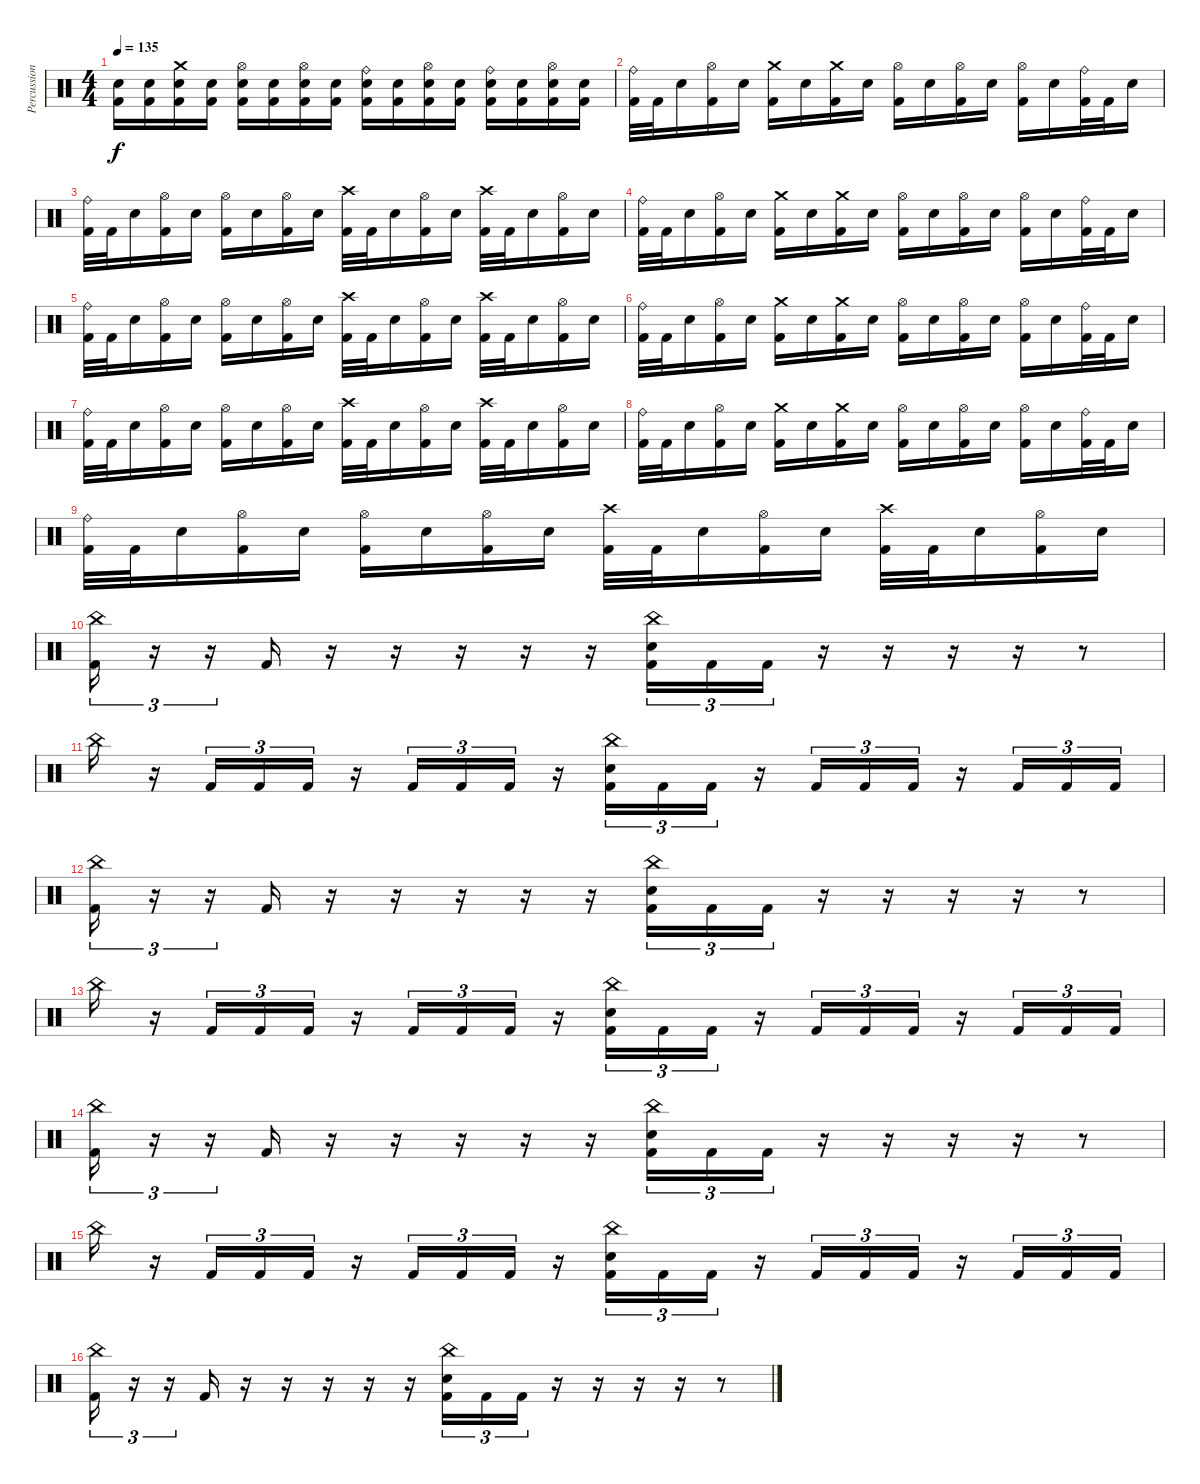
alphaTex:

\track ("Percussion" "Percussion") {instrument percussion}
\staff {score}
\articulation defaults
\ts (4 4)
\tempo 135
\clef neutral
\ks c
("Electric Snare (hit)" "Kick (hit) 2").16{dy f} ("Electric Snare (hit)" "Kick (hit) 2").16 ("Crash medium (hit)" "Electric Snare (hit)" "Kick (hit) 2").16 ("Electric Snare (hit)" "Kick (hit) 2").16 ("Hi-Hat (open)" "Electric Snare (hit)" "Kick (hit) 2").16 ("Electric Snare (hit)" "Kick (hit) 2").16 ("Hi-Hat (open)" "Electric Snare (hit)" "Kick (hit) 2").16 ("Electric Snare (hit)" "Kick (hit) 2").16 ("Ride (bell)" "Electric Snare (hit)" "Kick (hit) 2").16 ("Electric Snare (hit)" "Kick (hit) 2").16 ("Hi-Hat (open)" "Electric Snare (hit)" "Kick (hit) 2").16 ("Electric Snare (hit)" "Kick (hit) 2").16 ("Ride (bell)" "Electric Snare (hit)" "Kick (hit) 2").16 ("Electric Snare (hit)" "Kick (hit) 2").16 ("Hi-Hat (open)" "Electric Snare (hit)" "Kick (hit) 2").16 ("Electric Snare (hit)" "Kick (hit) 2").16 |
("Ride (bell)" "Kick (hit) 2").32 "Kick (hit) 2".32 "Electric Snare (hit)".16 ("Hi-Hat (open)" "Kick (hit) 2").16 "Electric Snare (hit)".16 ("Crash medium (hit)" "Kick (hit) 2").16 "Electric Snare (hit)".16 ("Crash medium (hit)" "Kick (hit) 2").16 "Electric Snare (hit)".16 ("Hi-Hat (open)" "Kick (hit) 2").16 "Electric Snare (hit)".16 ("Hi-Hat (open)" "Kick (hit) 2").16 "Electric Snare (hit)".16 ("Hi-Hat (open)" "Kick (hit) 2").16 "Electric Snare (hit)".16 ("Ride (bell)" "Kick (hit) 2").32 "Kick (hit) 2".32 "Electric Snare (hit)".16 |
("Ride (bell)" "Kick (hit) 2").32 "Kick (hit) 2".32 "Electric Snare (hit)".16 ("Hi-Hat (open)" "Kick (hit) 2").16 "Electric Snare (hit)".16 ("Hi-Hat (open)" "Kick (hit) 2").16 "Electric Snare (hit)".16 ("Hi-Hat (open)" "Kick (hit) 2").16 "Electric Snare (hit)".16 ("Crash high (hit)" "Kick (hit) 2").32 "Kick (hit) 2".32 "Electric Snare (hit)".16 ("Hi-Hat (open)" "Kick (hit) 2").16 "Electric Snare (hit)".16 ("Crash high (hit)" "Kick (hit) 2").32 "Kick (hit) 2".32 "Electric Snare (hit)".16 ("Hi-Hat (open)" "Kick (hit) 2").16 "Electric Snare (hit)".16 |
("Ride (bell)" "Kick (hit) 2").32 "Kick (hit) 2".32 "Electric Snare (hit)".16 ("Hi-Hat (open)" "Kick (hit) 2").16 "Electric Snare (hit)".16 ("Crash medium (hit)" "Kick (hit) 2").16 "Electric Snare (hit)".16 ("Crash medium (hit)" "Kick (hit) 2").16 "Electric Snare (hit)".16 ("Hi-Hat (open)" "Kick (hit) 2").16 "Electric Snare (hit)".16 ("Hi-Hat (open)" "Kick (hit) 2").16 "Electric Snare (hit)".16 ("Hi-Hat (open)" "Kick (hit) 2").16 "Electric Snare (hit)".16 ("Ride (bell)" "Kick (hit) 2").32 "Kick (hit) 2".32 "Electric Snare (hit)".16 |
("Ride (bell)" "Kick (hit) 2").32 "Kick (hit) 2".32 "Electric Snare (hit)".16 ("Hi-Hat (open)" "Kick (hit) 2").16 "Electric Snare (hit)".16 ("Hi-Hat (open)" "Kick (hit) 2").16 "Electric Snare (hit)".16 ("Hi-Hat (open)" "Kick (hit) 2").16 "Electric Snare (hit)".16 ("Crash high (hit)" "Kick (hit) 2").32 "Kick (hit) 2".32 "Electric Snare (hit)".16 ("Hi-Hat (open)" "Kick (hit) 2").16 "Electric Snare (hit)".16 ("Crash high (hit)" "Kick (hit) 2").32 "Kick (hit) 2".32 "Electric Snare (hit)".16 ("Hi-Hat (open)" "Kick (hit) 2").16 "Electric Snare (hit)".16 |
("Ride (bell)" "Kick (hit) 2").32 "Kick (hit) 2".32 "Electric Snare (hit)".16 ("Hi-Hat (open)" "Kick (hit) 2").16 "Electric Snare (hit)".16 ("Crash medium (hit)" "Kick (hit) 2").16 "Electric Snare (hit)".16 ("Crash medium (hit)" "Kick (hit) 2").16 "Electric Snare (hit)".16 ("Hi-Hat (open)" "Kick (hit) 2").16 "Electric Snare (hit)".16 ("Hi-Hat (open)" "Kick (hit) 2").16 "Electric Snare (hit)".16 ("Hi-Hat (open)" "Kick (hit) 2").16 "Electric Snare (hit)".16 ("Ride (bell)" "Kick (hit) 2").32 "Kick (hit) 2".32 "Electric Snare (hit)".16 |
("Ride (bell)" "Kick (hit) 2").32 "Kick (hit) 2".32 "Electric Snare (hit)".16 ("Hi-Hat (open)" "Kick (hit) 2").16 "Electric Snare (hit)".16 ("Hi-Hat (open)" "Kick (hit) 2").16 "Electric Snare (hit)".16 ("Hi-Hat (open)" "Kick (hit) 2").16 "Electric Snare (hit)".16 ("Crash high (hit)" "Kick (hit) 2").32 "Kick (hit) 2".32 "Electric Snare (hit)".16 ("Hi-Hat (open)" "Kick (hit) 2").16 "Electric Snare (hit)".16 ("Crash high (hit)" "Kick (hit) 2").32 "Kick (hit) 2".32 "Electric Snare (hit)".16 ("Hi-Hat (open)" "Kick (hit) 2").16 "Electric Snare (hit)".16 |
("Ride (bell)" "Kick (hit) 2").32 "Kick (hit) 2".32 "Electric Snare (hit)".16 ("Hi-Hat (open)" "Kick (hit) 2").16 "Electric Snare (hit)".16 ("Crash medium (hit)" "Kick (hit) 2").16 "Electric Snare (hit)".16 ("Crash medium (hit)" "Kick (hit) 2").16 "Electric Snare (hit)".16 ("Hi-Hat (open)" "Kick (hit) 2").16 "Electric Snare (hit)".16 ("Hi-Hat (open)" "Kick (hit) 2").16 "Electric Snare (hit)".16 ("Hi-Hat (open)" "Kick (hit) 2").16 "Electric Snare (hit)".16 ("Ride (bell)" "Kick (hit) 2").32 "Kick (hit) 2".32 "Electric Snare (hit)".16 |
("Ride (bell)" "Kick (hit) 2").32 "Kick (hit) 2".32 "Electric Snare (hit)".16 ("Hi-Hat (open)" "Kick (hit) 2").16 "Electric Snare (hit)".16 ("Hi-Hat (open)" "Kick (hit) 2").16 "Electric Snare (hit)".16 ("Hi-Hat (open)" "Kick (hit) 2").16 "Electric Snare (hit)".16 ("Crash high (hit)" "Kick (hit) 2").32 "Kick (hit) 2".32 "Electric Snare (hit)".16 ("Hi-Hat (open)" "Kick (hit) 2").16 "Electric Snare (hit)".16 ("Crash high (hit)" "Kick (hit) 2").32 "Kick (hit) 2".32 "Electric Snare (hit)".16 ("Hi-Hat (open)" "Kick (hit) 2").16 "Electric Snare (hit)".16 |
("China (hit)" "Kick (hit) 2").16{tu (3 2)} r.16{tu (3 2)} r.16{tu (3 2)} "Kick (hit) 2".16 r.16 r.16 r.16 r.16 r.16 ("China (hit)" "Electric Snare (hit)" "Kick (hit) 2").16{tu (3 2)} "Kick (hit) 2".16{tu (3 2)} "Kick (hit) 2".16{tu (3 2)} r.16 r.16 r.16 r.16 r.8 |
"China (hit)".16 r.16 "Kick (hit) 2".16{tu (3 2)} "Kick (hit) 2".16{tu (3 2)} "Kick (hit) 2".16{tu (3 2)} r.16 "Kick (hit) 2".16{tu (3 2)} "Kick (hit) 2".16{tu (3 2)} "Kick (hit) 2".16{tu (3 2)} r.16 ("China (hit)" "Electric Snare (hit)" "Kick (hit) 2").16{tu (3 2)} "Kick (hit) 2".16{tu (3 2)} "Kick (hit) 2".16{tu (3 2)} r.16 "Kick (hit) 2".16{tu (3 2)} "Kick (hit) 2".16{tu (3 2)} "Kick (hit) 2".16{tu (3 2)} r.16 "Kick (hit) 2".16{tu (3 2)} "Kick (hit) 2".16{tu (3 2)} "Kick (hit) 2".16{tu (3 2)} |
("China (hit)" "Kick (hit) 2").16{tu (3 2)} r.16{tu (3 2)} r.16{tu (3 2)} "Kick (hit) 2".16 r.16 r.16 r.16 r.16 r.16 ("China (hit)" "Electric Snare (hit)" "Kick (hit) 2").16{tu (3 2)} "Kick (hit) 2".16{tu (3 2)} "Kick (hit) 2".16{tu (3 2)} r.16 r.16 r.16 r.16 r.8 |
"China (hit)".16 r.16 "Kick (hit) 2".16{tu (3 2)} "Kick (hit) 2".16{tu (3 2)} "Kick (hit) 2".16{tu (3 2)} r.16 "Kick (hit) 2".16{tu (3 2)} "Kick (hit) 2".16{tu (3 2)} "Kick (hit) 2".16{tu (3 2)} r.16 ("China (hit)" "Electric Snare (hit)" "Kick (hit) 2").16{tu (3 2)} "Kick (hit) 2".16{tu (3 2)} "Kick (hit) 2".16{tu (3 2)} r.16 "Kick (hit) 2".16{tu (3 2)} "Kick (hit) 2".16{tu (3 2)} "Kick (hit) 2".16{tu (3 2)} r.16 "Kick (hit) 2".16{tu (3 2)} "Kick (hit) 2".16{tu (3 2)} "Kick (hit) 2".16{tu (3 2)} |
("China (hit)" "Kick (hit) 2").16{tu (3 2)} r.16{tu (3 2)} r.16{tu (3 2)} "Kick (hit) 2".16 r.16 r.16 r.16 r.16 r.16 ("China (hit)" "Electric Snare (hit)" "Kick (hit) 2").16{tu (3 2)} "Kick (hit) 2".16{tu (3 2)} "Kick (hit) 2".16{tu (3 2)} r.16 r.16 r.16 r.16 r.8 |
"China (hit)".16 r.16 "Kick (hit) 2".16{tu (3 2)} "Kick (hit) 2".16{tu (3 2)} "Kick (hit) 2".16{tu (3 2)} r.16 "Kick (hit) 2".16{tu (3 2)} "Kick (hit) 2".16{tu (3 2)} "Kick (hit) 2".16{tu (3 2)} r.16 ("China (hit)" "Electric Snare (hit)" "Kick (hit) 2").16{tu (3 2)} "Kick (hit) 2".16{tu (3 2)} "Kick (hit) 2".16{tu (3 2)} r.16 "Kick (hit) 2".16{tu (3 2)} "Kick (hit) 2".16{tu (3 2)} "Kick (hit) 2".16{tu (3 2)} r.16 "Kick (hit) 2".16{tu (3 2)} "Kick (hit) 2".16{tu (3 2)} "Kick (hit) 2".16{tu (3 2)} |
("China (hit)" "Kick (hit) 2").16{tu (3 2)} r.16{tu (3 2)} r.16{tu (3 2)} "Kick (hit) 2".16 r.16 r.16 r.16 r.16 r.16 ("China (hit)" "Electric Snare (hit)" "Kick (hit) 2").16{tu (3 2)} "Kick (hit) 2".16{tu (3 2)} "Kick (hit) 2".16{tu (3 2)} r.16 r.16 r.16 r.16 r.8
